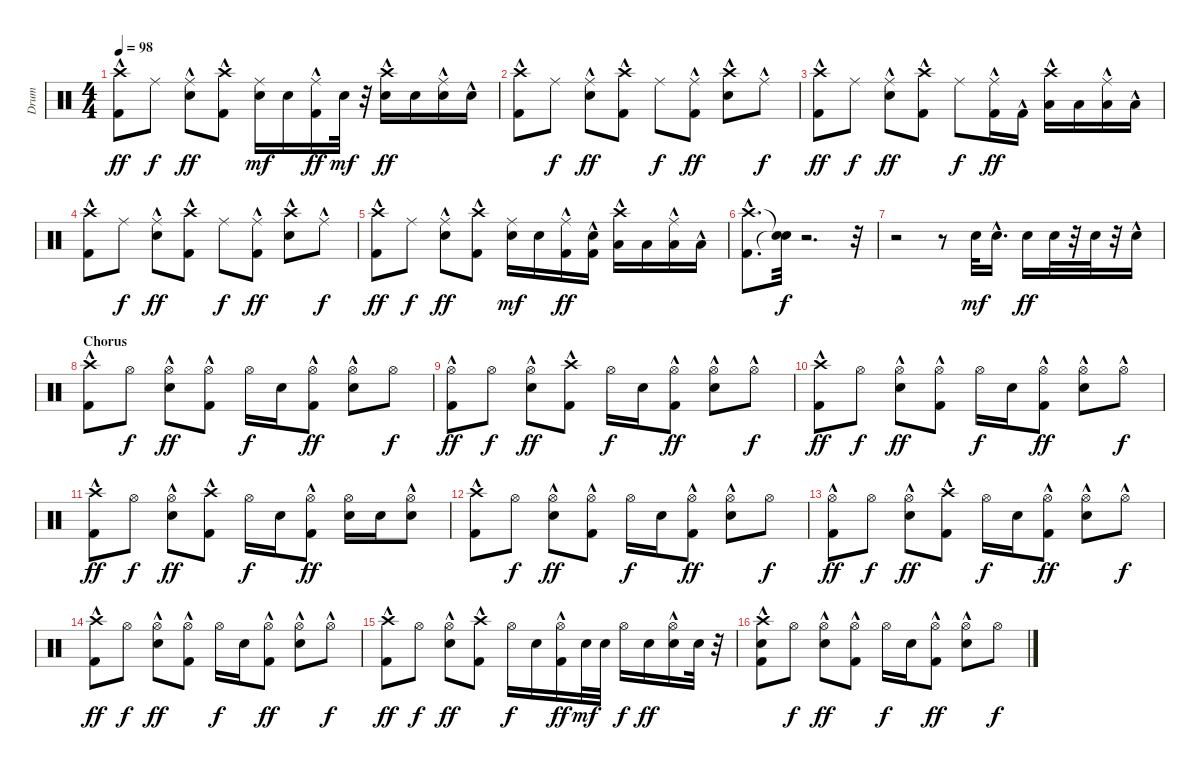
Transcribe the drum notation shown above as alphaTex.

\track ("Drum" "Drum") {instrument percussion}
\staff {score}
\articulation defaults
\ts (4 4)
\tempo 98
\clef neutral
\ks c
("Crash high (hit)"{hac} "Kick (hit) 2"{hac}).8{dy ff} "Ride (middle)".8{dy f} ("Electric Snare (hit)"{hac} "Ride (middle)"{hac}).8{dy ff} ("Crash high (hit)"{hac} "Kick (hit) 2"{hac}).8 ("Ride (middle)" "Electric Snare (hit)").16{dy mf} "Electric Snare (hit)".16 ("Ride (middle)"{hac} "Kick (hit) 2"{hac}).16{dy ff} "Electric Snare (hit)".32{dy mf} r.32 ("Crash high (hit)"{hac} "Electric Snare (hit)").16{dy ff} "Electric Snare (hit)".16 ("Ride (middle)"{hac} "Electric Snare (hit)").16 "Electric Snare (hit)"{hac}.16 |
("Crash high (hit)"{hac} "Kick (hit) 2"{hac}).8 "Ride (middle)".8{dy f} ("Electric Snare (hit)"{hac} "Ride (middle)"{hac}).8{dy ff} ("Crash high (hit)"{hac} "Kick (hit) 2"{hac}).8 "Ride (middle)".8{dy f} ("Ride (middle)"{hac} "Kick (hit) 2"{hac}).8{dy ff} ("Crash high (hit)"{hac} "Electric Snare (hit)"{hac}).8 "Ride (middle)"{hac}.8{dy f} |
("Crash high (hit)"{hac} "Kick (hit) 2"{hac}).8{dy ff} "Ride (middle)".8{dy f} ("Electric Snare (hit)"{hac} "Ride (middle)"{hac}).8{dy ff} ("Crash high (hit)"{hac} "Kick (hit) 2"{hac}).8 "Ride (middle)".8{dy f} ("Ride (middle)"{hac} "Kick (hit) 2").16{dy ff} "Kick (hit) 2"{hac}.16 ("Crash high (hit)"{hac} "Low Tom (hit)").16 "Low Tom (hit)".16 ("Ride (middle)"{hac} "Low Tom (hit)").16 "Low Tom (hit)"{hac}.16 |
("Crash high (hit)"{hac} "Kick (hit) 2"{hac}).8 "Ride (middle)".8{dy f} ("Electric Snare (hit)"{hac} "Ride (middle)"{hac}).8{dy ff} ("Crash high (hit)"{hac} "Kick (hit) 2"{hac}).8 "Ride (middle)".8{dy f} ("Ride (middle)"{hac} "Kick (hit) 2"{hac}).8{dy ff} ("Crash high (hit)"{hac} "Electric Snare (hit)"{hac}).8 "Ride (middle)"{hac}.8{dy f} |
("Crash high (hit)"{hac} "Kick (hit) 2"{hac}).8{dy ff} "Ride (middle)".8{dy f} ("Electric Snare (hit)"{hac} "Ride (middle)"{hac}).8{dy ff} ("Crash high (hit)"{hac} "Kick (hit) 2"{hac}).8 ("Ride (middle)" "Electric Snare (hit)").16{dy mf} "Electric Snare (hit)".16 ("Ride (middle)"{hac} "Kick (hit) 2").16{dy ff} ("Electric Snare (hit)"{hac} "Kick (hit) 2"{hac}).16 ("Crash high (hit)"{hac} "Low Tom (hit)").16 "Low Tom (hit)".16 ("Ride (middle)"{hac} "Low Tom (hit)").16 "Low Tom (hit)"{hac}.16 |
("Crash high (hit)"{hac} "Kick (hit) 2"{hac}).8{d} ("Snare (hit)"{t} "Snare (hit)"{t}).32{dy f} r.2{d} r.32 |
r.2 r.8 "Electric Snare (hit)".32{dy mf} "Electric Snare (hit)"{hac}.16{d} "Electric Snare (hit)".16{dy ff} "Electric Snare (hit)".32 r.32 "Electric Snare (hit)".32 r.32 "Electric Snare (hit)"{hac}.16 |
\section ("" "Chorus")
("Kick (hit) 2"{hac} "Crash high (hit)"{hac}).8 "Hi-Hat (open)".8{dy f} ("Hi-Hat (open)" "Electric Snare (hit)"{hac}).8{dy ff} ("Kick (hit) 2"{hac} "Hi-Hat (open)").8 "Hi-Hat (open)".16{dy f} "Electric Snare (hit)".16 ("Kick (hit) 2"{hac} "Hi-Hat (open)").8{dy ff} ("Electric Snare (hit)"{hac} "Hi-Hat (open)").8 "Hi-Hat (open)".8{dy f} |
("Hi-Hat (open)" "Kick (hit) 2"{hac}).8{dy ff} "Hi-Hat (open)".8{dy f} ("Electric Snare (hit)"{hac} "Hi-Hat (open)"{hac}).8{dy ff} ("Kick (hit) 2"{hac} "Crash high (hit)"{hac}).8 "Hi-Hat (open)".16{dy f} "Electric Snare (hit)".16 ("Kick (hit) 2"{hac} "Hi-Hat (open)").8{dy ff} ("Hi-Hat (open)" "Electric Snare (hit)"{hac}).8 "Hi-Hat (open)"{hac}.8{dy f} |
("Kick (hit) 2"{hac} "Crash high (hit)"{hac}).8{dy ff} "Hi-Hat (open)".8{dy f} ("Hi-Hat (open)" "Electric Snare (hit)"{hac}).8{dy ff} ("Kick (hit) 2"{hac} "Hi-Hat (open)").8 "Hi-Hat (open)".16{dy f} "Electric Snare (hit)".16 ("Kick (hit) 2"{hac} "Hi-Hat (open)").8{dy ff} ("Electric Snare (hit)"{hac} "Hi-Hat (open)").8 "Hi-Hat (open)"{hac}.8{dy f} |
("Crash high (hit)"{hac} "Kick (hit) 2"{hac}).8{dy ff} "Hi-Hat (open)".8{dy f} ("Electric Snare (hit)"{hac} "Hi-Hat (open)"{hac}).8{dy ff} ("Kick (hit) 2"{hac} "Crash high (hit)"{hac}).8 "Hi-Hat (open)".16{dy f} "Electric Snare (hit)".16 ("Kick (hit) 2"{hac} "Hi-Hat (open)").8{dy ff} ("Hi-Hat (open)" "Electric Snare (hit)").16 "Electric Snare (hit)".16 ("Electric Snare (hit)"{hac} "Hi-Hat (open)"{hac}).8 |
("Crash high (hit)"{hac} "Kick (hit) 2"{hac}).8 "Hi-Hat (open)".8{dy f} ("Electric Snare (hit)"{hac} "Hi-Hat (open)").8{dy ff} ("Hi-Hat (open)" "Kick (hit) 2"{hac}).8 "Hi-Hat (open)".16{dy f} "Electric Snare (hit)".16 ("Hi-Hat (open)" "Kick (hit) 2"{hac}).8{dy ff} ("Hi-Hat (open)" "Electric Snare (hit)"{hac}).8 "Hi-Hat (open)".8{dy f} |
("Kick (hit) 2"{hac} "Hi-Hat (open)").8{dy ff} "Hi-Hat (open)".8{dy f} ("Hi-Hat (open)"{hac} "Electric Snare (hit)"{hac}).8{dy ff} ("Crash high (hit)"{hac} "Kick (hit) 2"{hac}).8 "Hi-Hat (open)".16{dy f} "Electric Snare (hit)".16 ("Hi-Hat (open)" "Kick (hit) 2"{hac}).8{dy ff} ("Electric Snare (hit)"{hac} "Hi-Hat (open)").8 "Hi-Hat (open)"{hac}.8{dy f} |
("Crash high (hit)"{hac} "Kick (hit) 2"{hac}).8{dy ff} "Hi-Hat (open)".8{dy f} ("Electric Snare (hit)"{hac} "Hi-Hat (open)").8{dy ff} ("Hi-Hat (open)" "Kick (hit) 2"{hac}).8 "Hi-Hat (open)".16{dy f} "Electric Snare (hit)".16 ("Hi-Hat (open)" "Kick (hit) 2"{hac}).8{dy ff} ("Hi-Hat (open)" "Electric Snare (hit)"{hac}).8 "Hi-Hat (open)"{hac}.8{dy f} |
("Kick (hit) 2"{hac} "Crash high (hit)"{hac}).8{dy ff} "Hi-Hat (open)".8{dy f} ("Hi-Hat (open)"{hac} "Electric Snare (hit)"{hac}).8{dy ff} ("Crash high (hit)"{hac} "Kick (hit) 2"{hac}).8 "Hi-Hat (open)".16{dy f} "Electric Snare (hit)".16 ("Hi-Hat (open)" "Kick (hit) 2"{hac}).16{dy ff} "Electric Snare (hit)".32{dy mf} "Electric Snare (hit)".32 "Hi-Hat (open)".16{dy f} "Electric Snare (hit)".16{dy ff} ("Electric Snare (hit)" "Hi-Hat (open)"{hac}).16 "Electric Snare (hit)".32 r.32 |
("Crash high (hit)"{hac} "Kick (hit) 2"{hac} "Electric Snare (hit)"{hac}).8 "Hi-Hat (open)".8{dy f} ("Electric Snare (hit)"{hac} "Hi-Hat (open)").8{dy ff} ("Hi-Hat (open)" "Kick (hit) 2"{hac}).8 "Hi-Hat (open)".16{dy f} "Electric Snare (hit)".16 ("Hi-Hat (open)" "Kick (hit) 2"{hac}).8{dy ff} ("Hi-Hat (open)" "Electric Snare (hit)"{hac}).8 "Hi-Hat (open)".8{dy f}
